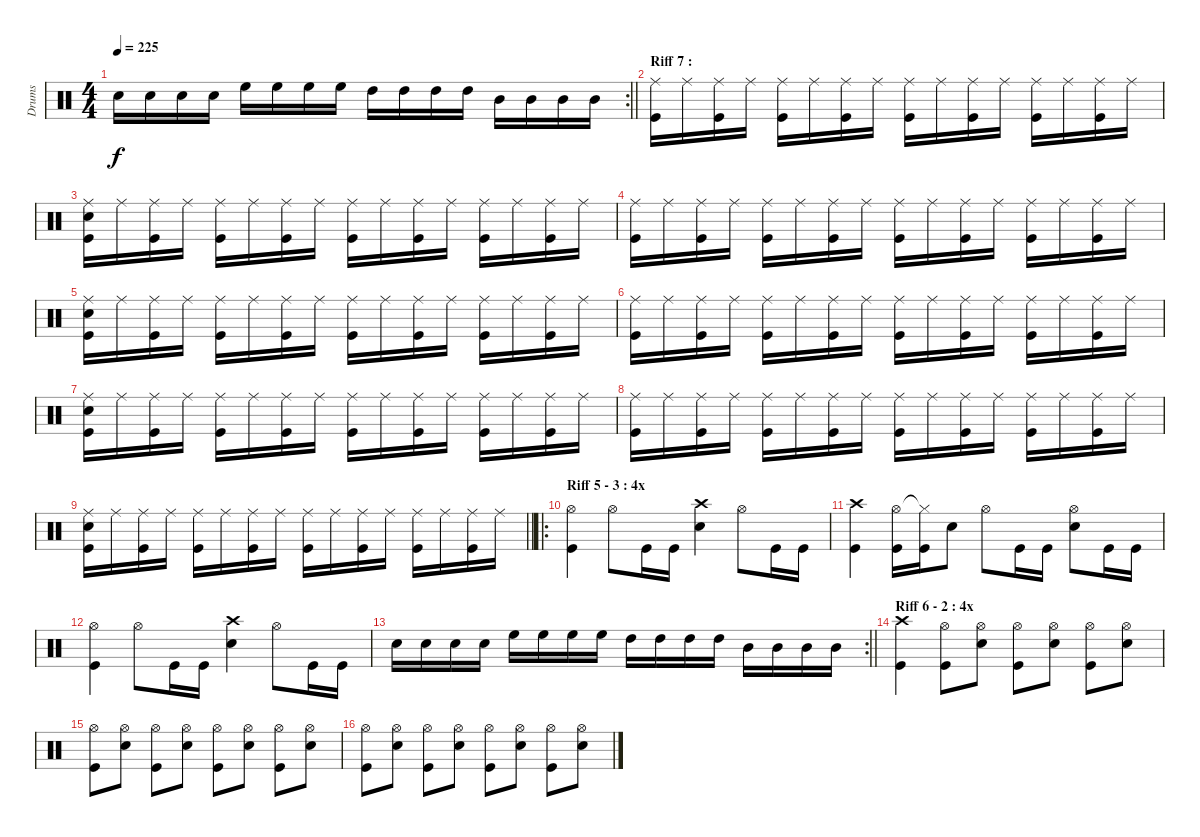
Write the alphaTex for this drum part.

\track ("Drums" "Drums") {instrument percussion}
\staff {score}
\articulation defaults
\rc 2
\ts (4 4)
\tempo 225
\clef neutral
\barLineRight lightlight
\ks c "Electric Snare (hit)".16{dy f} "Electric Snare (hit)".16 "Electric Snare (hit)".16 "Electric Snare (hit)".16 "High Floor Tom (hit)".16 "High Floor Tom (hit)".16 "High Floor Tom (hit)".16 "High Floor Tom (hit)".16 "High Tom (hit)".16 "High Tom (hit)".16 "High Tom (hit)".16 "High Tom (hit)".16 "Mid Tom (hit)".16 "Mid Tom (hit)".16 "Mid Tom (hit)".16 "Mid Tom (hit)".16
|
\section ("" "Riff 7 : ")
("Ride (middle)" "Kick (hit)").16 "Ride (middle)".16 ("Ride (middle)" "Kick (hit)").16 "Ride (middle)".16 ("Ride (middle)" "Kick (hit)").16 "Ride (middle)".16 ("Ride (middle)" "Kick (hit)").16 "Ride (middle)".16 ("Ride (middle)" "Kick (hit)").16 "Ride (middle)".16 ("Ride (middle)" "Kick (hit)").16 "Ride (middle)".16 ("Ride (middle)" "Kick (hit)").16 "Ride (middle)".16 ("Ride (middle)" "Kick (hit)").16 "Ride (middle)".16 |
("Ride (middle)" "Electric Snare (hit)" "Kick (hit)").16 "Ride (middle)".16 ("Ride (middle)" "Kick (hit)").16 "Ride (middle)".16 ("Ride (middle)" "Kick (hit)").16 "Ride (middle)".16 ("Ride (middle)" "Kick (hit)").16 "Ride (middle)".16 ("Ride (middle)" "Kick (hit)").16 "Ride (middle)".16 ("Ride (middle)" "Kick (hit)").16 "Ride (middle)".16 ("Ride (middle)" "Kick (hit)").16 "Ride (middle)".16 ("Ride (middle)" "Kick (hit)").16 "Ride (middle)".16 |
("Ride (middle)" "Kick (hit)").16 "Ride (middle)".16 ("Ride (middle)" "Kick (hit)").16 "Ride (middle)".16 ("Ride (middle)" "Kick (hit)").16 "Ride (middle)".16 ("Ride (middle)" "Kick (hit)").16 "Ride (middle)".16 ("Ride (middle)" "Kick (hit)").16 "Ride (middle)".16 ("Ride (middle)" "Kick (hit)").16 "Ride (middle)".16 ("Ride (middle)" "Kick (hit)").16 "Ride (middle)".16 ("Ride (middle)" "Kick (hit)").16 "Ride (middle)".16 |
("Ride (middle)" "Electric Snare (hit)" "Kick (hit)").16 "Ride (middle)".16 ("Ride (middle)" "Kick (hit)").16 "Ride (middle)".16 ("Ride (middle)" "Kick (hit)").16 "Ride (middle)".16 ("Ride (middle)" "Kick (hit)").16 "Ride (middle)".16 ("Ride (middle)" "Kick (hit)").16 "Ride (middle)".16 ("Ride (middle)" "Kick (hit)").16 "Ride (middle)".16 ("Ride (middle)" "Kick (hit)").16 "Ride (middle)".16 ("Ride (middle)" "Kick (hit)").16 "Ride (middle)".16 |
("Ride (middle)" "Kick (hit)").16 "Ride (middle)".16 ("Ride (middle)" "Kick (hit)").16 "Ride (middle)".16 ("Ride (middle)" "Kick (hit)").16 "Ride (middle)".16 ("Ride (middle)" "Kick (hit)").16 "Ride (middle)".16 ("Ride (middle)" "Kick (hit)").16 "Ride (middle)".16 ("Ride (middle)" "Kick (hit)").16 "Ride (middle)".16 ("Ride (middle)" "Kick (hit)").16 "Ride (middle)".16 ("Ride (middle)" "Kick (hit)").16 "Ride (middle)".16 |
("Ride (middle)" "Electric Snare (hit)" "Kick (hit)").16 "Ride (middle)".16 ("Ride (middle)" "Kick (hit)").16 "Ride (middle)".16 ("Ride (middle)" "Kick (hit)").16 "Ride (middle)".16 ("Ride (middle)" "Kick (hit)").16 "Ride (middle)".16 ("Ride (middle)" "Kick (hit)").16 "Ride (middle)".16 ("Ride (middle)" "Kick (hit)").16 "Ride (middle)".16 ("Ride (middle)" "Kick (hit)").16 "Ride (middle)".16 ("Ride (middle)" "Kick (hit)").16 "Ride (middle)".16 |
("Ride (middle)" "Kick (hit)").16 "Ride (middle)".16 ("Ride (middle)" "Kick (hit)").16 "Ride (middle)".16 ("Ride (middle)" "Kick (hit)").16 "Ride (middle)".16 ("Ride (middle)" "Kick (hit)").16 "Ride (middle)".16 ("Ride (middle)" "Kick (hit)").16 "Ride (middle)".16 ("Ride (middle)" "Kick (hit)").16 "Ride (middle)".16 ("Ride (middle)" "Kick (hit)").16 "Ride (middle)".16 ("Ride (middle)" "Kick (hit)").16 "Ride (middle)".16 |
\barLineRight lightlight
("Ride (middle)" "Electric Snare (hit)" "Kick (hit)").16 "Ride (middle)".16 ("Ride (middle)" "Kick (hit)").16 "Ride (middle)".16 ("Ride (middle)" "Kick (hit)").16 "Ride (middle)".16 ("Ride (middle)" "Kick (hit)").16 "Ride (middle)".16 ("Ride (middle)" "Kick (hit)").16 "Ride (middle)".16 ("Ride (middle)" "Kick (hit)").16 "Ride (middle)".16 ("Ride (middle)" "Kick (hit)").16 "Ride (middle)".16 ("Ride (middle)" "Kick (hit)").16 "Ride (middle)".16 |
\ro
\section ("" "Riff 5 - 3 : 4x")
("Hi-Hat (open)" "Kick (hit)").4 "Hi-Hat (open)".8 "Kick (hit)".16 "Kick (hit)".16 ("Crash high (hit)" "Electric Snare (hit)").4 "Hi-Hat (open)".8 "Kick (hit)".16 "Kick (hit)".16 |
("Crash high (hit)" "Kick (hit)").4 ("Hi-Hat (open)" "Kick (hit)").16 ("Hi-Hat (closed)"{t} "Kick (hit)").16 "Electric Snare (hit)".8 "Hi-Hat (open)".8 "Kick (hit)".16 "Kick (hit)".16 ("Hi-Hat (open)" "Electric Snare (hit)").8 "Kick (hit)".16 "Kick (hit)".16 |
("Hi-Hat (open)" "Kick (hit)").4 "Hi-Hat (open)".8 "Kick (hit)".16 "Kick (hit)".16 ("Crash high (hit)" "Electric Snare (hit)").4 "Hi-Hat (open)".8 "Kick (hit)".16 "Kick (hit)".16 |
\rc 2
\barLineRight lightlight "Electric Snare (hit)".16 "Electric Snare (hit)".16 "Electric Snare (hit)".16 "Electric Snare (hit)".16 "High Floor Tom (hit)".16 "High Floor Tom (hit)".16 "High Floor Tom (hit)".16 "High Floor Tom (hit)".16 "High Tom (hit)".16 "High Tom (hit)".16 "High Tom (hit)".16 "High Tom (hit)".16 "Mid Tom (hit)".16 "Mid Tom (hit)".16 "Mid Tom (hit)".16 "Mid Tom (hit)".16
|
\section ("" "Riff 6 - 2 : 4x")
("Crash high (hit)" "Kick (hit)").4 ("Hi-Hat (open)" "Kick (hit)").8 ("Hi-Hat (open)" "Electric Snare (hit)").8 ("Hi-Hat (open)" "Kick (hit)").8 ("Hi-Hat (open)" "Electric Snare (hit)").8 ("Hi-Hat (open)" "Kick (hit)").8 ("Hi-Hat (open)" "Electric Snare (hit)").8 |
("Hi-Hat (open)" "Kick (hit)").8 ("Hi-Hat (open)" "Electric Snare (hit)").8 ("Hi-Hat (open)" "Kick (hit)").8 ("Hi-Hat (open)" "Electric Snare (hit)").8 ("Hi-Hat (open)" "Kick (hit)").8 ("Hi-Hat (open)" "Electric Snare (hit)").8 ("Hi-Hat (open)" "Kick (hit)").8 ("Hi-Hat (open)" "Electric Snare (hit)").8 |
("Hi-Hat (open)" "Kick (hit)").8 ("Hi-Hat (open)" "Electric Snare (hit)").8 ("Hi-Hat (open)" "Kick (hit)").8 ("Hi-Hat (open)" "Electric Snare (hit)").8 ("Hi-Hat (open)" "Kick (hit)").8 ("Hi-Hat (open)" "Electric Snare (hit)").8 ("Hi-Hat (open)" "Kick (hit)").8 ("Hi-Hat (open)" "Electric Snare (hit)").8
